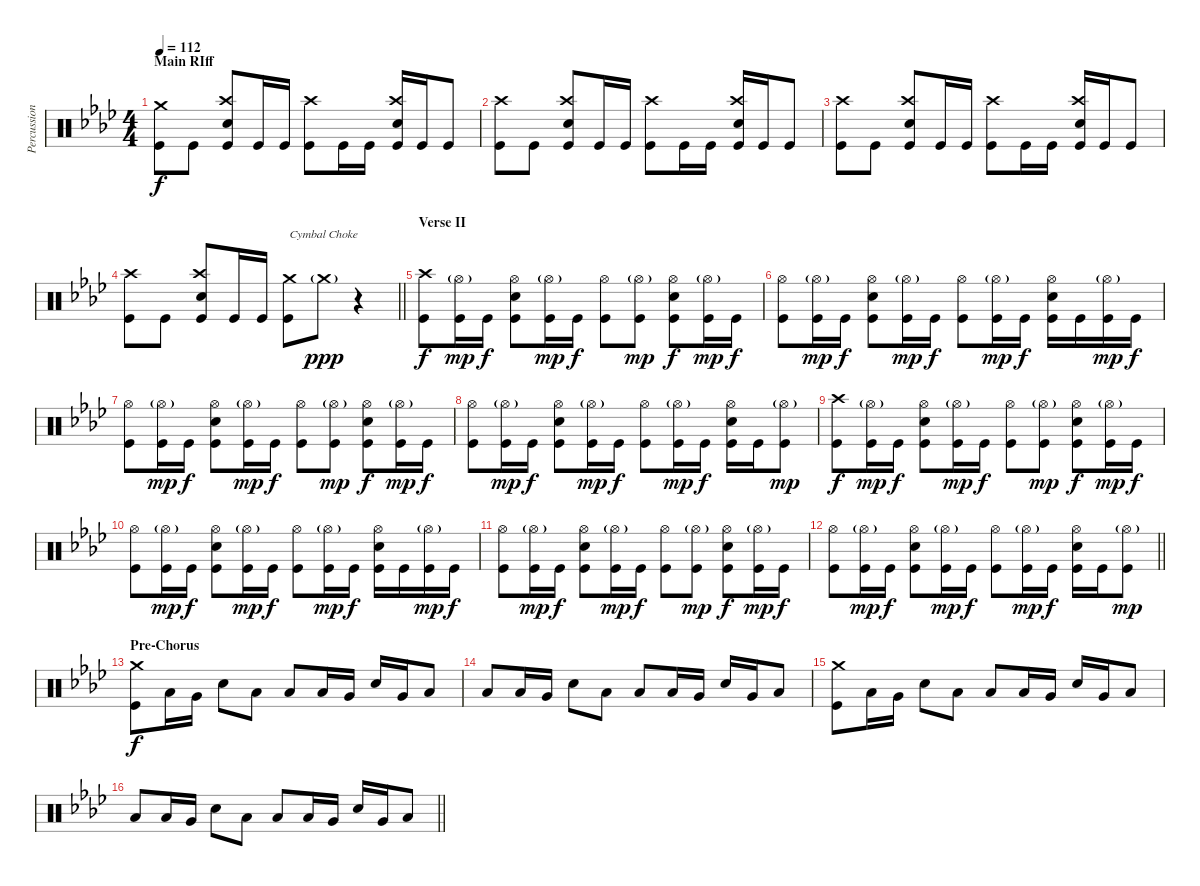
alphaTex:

\track ("Percussion" "Percussion") {instrument percussion}
\staff {score}
\articulation defaults
\ts (4 4)
\section ("" "Main RIff")
\tempo 112
\clef neutral
\ks ab
("Crash medium (hit)" "Kick (hit)").8{dy f} "Kick (hit)".8 ("Crash high (hit)" "Electric Snare (hit)" "Kick (hit)").8 "Kick (hit)".16 "Kick (hit)".16 ("Crash high (hit)" "Kick (hit)").8 "Kick (hit)".16 "Kick (hit)".16 ("Crash high (hit)" "Electric Snare (hit)" "Kick (hit)").16 "Kick (hit)".16 "Kick (hit)".8 |
("Crash high (hit)" "Kick (hit)").8 "Kick (hit)".8 ("Crash high (hit)" "Electric Snare (hit)" "Kick (hit)").8 "Kick (hit)".16 "Kick (hit)".16 ("Crash high (hit)" "Kick (hit)").8 "Kick (hit)".16 "Kick (hit)".16 ("Crash high (hit)" "Electric Snare (hit)" "Kick (hit)").16 "Kick (hit)".16 "Kick (hit)".8 |
("Crash high (hit)" "Kick (hit)").8 "Kick (hit)".8 ("Crash high (hit)" "Electric Snare (hit)" "Kick (hit)").8 "Kick (hit)".16 "Kick (hit)".16 ("Crash high (hit)" "Kick (hit)").8 "Kick (hit)".16 "Kick (hit)".16 ("Crash high (hit)" "Electric Snare (hit)" "Kick (hit)").16 "Kick (hit)".16 "Kick (hit)".8 |
\barLineRight lightlight
("Crash high (hit)" "Kick (hit)").8 "Kick (hit)".8 ("Crash high (hit)" "Electric Snare (hit)" "Kick (hit)").8 "Kick (hit)".16 "Kick (hit)".16 ("Crash medium (hit)" "Kick (hit)").8{txt "Cymbal Choke"} "Crash medium (hit)"{g}.8{dy ppp volume 0} r.4 |
\section ("" "Verse II")
("Crash high (hit)" "Kick (hit)").8{dy f volume 13} ("Hi-Hat (open)"{g} "Kick (hit)").16{dy mp} "Kick (hit)".16{dy f} ("Hi-Hat (open)" "Electric Snare (hit)" "Kick (hit)").8 ("Hi-Hat (open)"{g} "Kick (hit)").16{dy mp} "Kick (hit)".16{dy f} ("Hi-Hat (open)" "Kick (hit)").8 ("Hi-Hat (open)"{g} "Kick (hit)").8{dy mp} ("Hi-Hat (open)" "Electric Snare (hit)" "Kick (hit)").8{dy f} ("Hi-Hat (open)"{g} "Kick (hit)").16{dy mp} "Kick (hit)".16{dy f} |
("Hi-Hat (open)" "Kick (hit)").8 ("Hi-Hat (open)"{g} "Kick (hit)").16{dy mp} "Kick (hit)".16{dy f} ("Hi-Hat (open)" "Electric Snare (hit)" "Kick (hit)").8 ("Hi-Hat (open)"{g} "Kick (hit)").16{dy mp} "Kick (hit)".16{dy f} ("Hi-Hat (open)" "Kick (hit)").8 ("Hi-Hat (open)"{g} "Kick (hit)").16{dy mp} "Kick (hit)".16{dy f} ("Hi-Hat (open)" "Electric Snare (hit)" "Kick (hit)").16 "Kick (hit)".16 ("Hi-Hat (open)"{g} "Kick (hit)").16{dy mp} "Kick (hit)".16{dy f} |
("Hi-Hat (open)" "Kick (hit)").8 ("Hi-Hat (open)"{g} "Kick (hit)").16{dy mp} "Kick (hit)".16{dy f} ("Hi-Hat (open)" "Electric Snare (hit)" "Kick (hit)").8 ("Hi-Hat (open)"{g} "Kick (hit)").16{dy mp} "Kick (hit)".16{dy f} ("Hi-Hat (open)" "Kick (hit)").8 ("Hi-Hat (open)"{g} "Kick (hit)").8{dy mp} ("Hi-Hat (open)" "Electric Snare (hit)" "Kick (hit)").8{dy f} ("Hi-Hat (open)"{g} "Kick (hit)").16{dy mp} "Kick (hit)".16{dy f} |
("Hi-Hat (open)" "Kick (hit)").8 ("Hi-Hat (open)"{g} "Kick (hit)").16{dy mp} "Kick (hit)".16{dy f} ("Hi-Hat (open)" "Electric Snare (hit)" "Kick (hit)").8 ("Hi-Hat (open)"{g} "Kick (hit)").16{dy mp} "Kick (hit)".16{dy f} ("Hi-Hat (open)" "Kick (hit)").8 ("Hi-Hat (open)"{g} "Kick (hit)").16{dy mp} "Kick (hit)".16{dy f} ("Hi-Hat (open)" "Electric Snare (hit)" "Kick (hit)").16 "Kick (hit)".16 ("Hi-Hat (open)"{g} "Kick (hit)").8{dy mp} |
("Crash high (hit)" "Kick (hit)").8{dy f} ("Hi-Hat (open)"{g} "Kick (hit)").16{dy mp} "Kick (hit)".16{dy f} ("Hi-Hat (open)" "Electric Snare (hit)" "Kick (hit)").8 ("Hi-Hat (open)"{g} "Kick (hit)").16{dy mp} "Kick (hit)".16{dy f} ("Hi-Hat (open)" "Kick (hit)").8 ("Hi-Hat (open)"{g} "Kick (hit)").8{dy mp} ("Hi-Hat (open)" "Electric Snare (hit)" "Kick (hit)").8{dy f} ("Hi-Hat (open)"{g} "Kick (hit)").16{dy mp} "Kick (hit)".16{dy f} |
("Hi-Hat (open)" "Kick (hit)").8 ("Hi-Hat (open)"{g} "Kick (hit)").16{dy mp} "Kick (hit)".16{dy f} ("Hi-Hat (open)" "Electric Snare (hit)" "Kick (hit)").8 ("Hi-Hat (open)"{g} "Kick (hit)").16{dy mp} "Kick (hit)".16{dy f} ("Hi-Hat (open)" "Kick (hit)").8 ("Hi-Hat (open)"{g} "Kick (hit)").16{dy mp} "Kick (hit)".16{dy f} ("Hi-Hat (open)" "Electric Snare (hit)" "Kick (hit)").16 "Kick (hit)".16 ("Hi-Hat (open)"{g} "Kick (hit)").16{dy mp} "Kick (hit)".16{dy f} |
("Hi-Hat (open)" "Kick (hit)").8 ("Hi-Hat (open)"{g} "Kick (hit)").16{dy mp} "Kick (hit)".16{dy f} ("Hi-Hat (open)" "Electric Snare (hit)" "Kick (hit)").8 ("Hi-Hat (open)"{g} "Kick (hit)").16{dy mp} "Kick (hit)".16{dy f} ("Hi-Hat (open)" "Kick (hit)").8 ("Hi-Hat (open)"{g} "Kick (hit)").8{dy mp} ("Hi-Hat (open)" "Electric Snare (hit)" "Kick (hit)").8{dy f} ("Hi-Hat (open)"{g} "Kick (hit)").16{dy mp} "Kick (hit)".16{dy f} |
\barLineRight lightlight
("Hi-Hat (open)" "Kick (hit)").8 ("Hi-Hat (open)"{g} "Kick (hit)").16{dy mp} "Kick (hit)".16{dy f} ("Hi-Hat (open)" "Electric Snare (hit)" "Kick (hit)").8 ("Hi-Hat (open)"{g} "Kick (hit)").16{dy mp} "Kick (hit)".16{dy f} ("Hi-Hat (open)" "Kick (hit)").8 ("Hi-Hat (open)"{g} "Kick (hit)").16{dy mp} "Kick (hit)".16{dy f} ("Hi-Hat (open)" "Electric Snare (hit)" "Kick (hit)").16 "Kick (hit)".16 ("Hi-Hat (open)"{g} "Kick (hit)").8{dy mp} |
\section ("" "Pre-Chorus")
("Crash medium (hit)" "Kick (hit)").8{dy f} "Low Floor Tom (hit)".16 "Very Low Tom (hit)".16 "Electric Snare (hit)".8 "Low Floor Tom (hit)".8 "Low Floor Tom (hit)".8 "Low Floor Tom (hit)".16 "Very Low Tom (hit)".16 "Electric Snare (hit)".16 "Very Low Tom (hit)".16 "Low Floor Tom (hit)".8 |
"Low Floor Tom (hit)".8 "Low Floor Tom (hit)".16 "Very Low Tom (hit)".16 "Electric Snare (hit)".8 "Low Floor Tom (hit)".8 "Low Floor Tom (hit)".8 "Low Floor Tom (hit)".16 "Very Low Tom (hit)".16 "Electric Snare (hit)".16 "Very Low Tom (hit)".16 "Low Floor Tom (hit)".8 |
("Crash medium (hit)" "Kick (hit)").8 "Low Floor Tom (hit)".16 "Very Low Tom (hit)".16 "Electric Snare (hit)".8 "Low Floor Tom (hit)".8 "Low Floor Tom (hit)".8 "Low Floor Tom (hit)".16 "Very Low Tom (hit)".16 "Electric Snare (hit)".16 "Very Low Tom (hit)".16 "Low Floor Tom (hit)".8 |
\barLineRight lightlight "Low Floor Tom (hit)".8 "Low Floor Tom (hit)".16 "Very Low Tom (hit)".16 "Electric Snare (hit)".8 "Low Floor Tom (hit)".8 "Low Floor Tom (hit)".8 "Low Floor Tom (hit)".16 "Very Low Tom (hit)".16 "Electric Snare (hit)".16 "Very Low Tom (hit)".16 "Low Floor Tom (hit)".8
